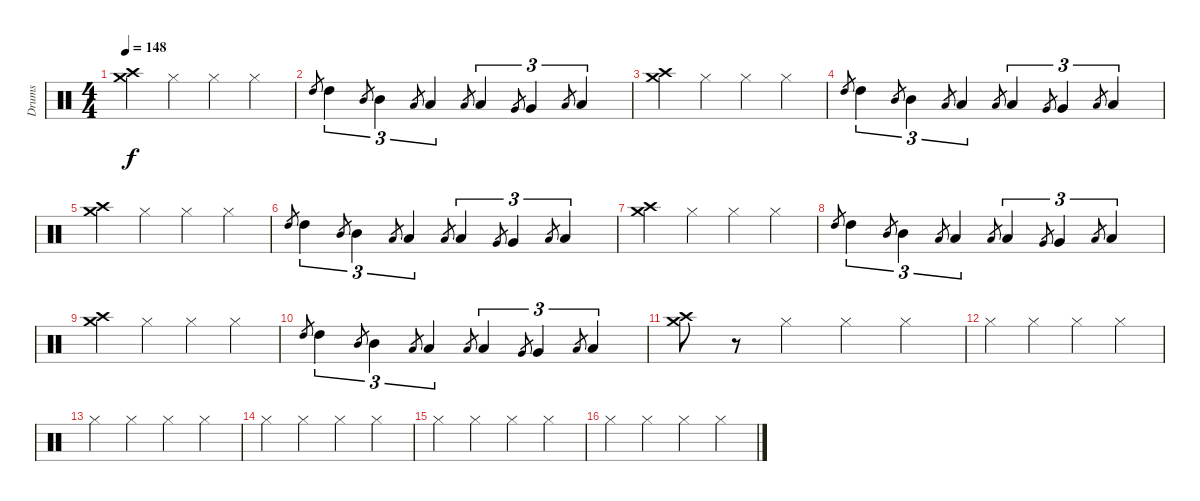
\track ("Drums" "Drums") {instrument percussion}
\staff {score}
\articulation defaults
\ts (4 4)
\tempo 148
\clef neutral
\ks c
("Crash medium (hit)" "Crash high (hit)").4{dy f} "Hi-Hat (closed)".4 "Hi-Hat (closed)".4 "Hi-Hat (closed)".4 |
"High Tom (hit)".8{gr} "High Tom (hit)".4{tu (3 2)} "Mid Tom (hit)".8{gr} "Mid Tom (hit)".4{tu (3 2)} "Low Tom (hit)".8{gr} "Low Tom (hit)".4{tu (3 2)} "Low Tom (hit)".8{gr} "Low Tom (hit)".4{tu (3 2)} "Very Low Tom (hit)".8{gr} "Very Low Tom (hit)".4{tu (3 2)} "Low Floor Tom (hit)".8{gr} "Low Floor Tom (hit)".4{tu (3 2)} |
("Crash medium (hit)" "Crash high (hit)").4 "Hi-Hat (closed)".4 "Hi-Hat (closed)".4 "Hi-Hat (closed)".4 |
"High Tom (hit)".8{gr} "High Tom (hit)".4{tu (3 2)} "Mid Tom (hit)".8{gr} "Mid Tom (hit)".4{tu (3 2)} "Low Tom (hit)".8{gr} "Low Tom (hit)".4{tu (3 2)} "Low Tom (hit)".8{gr} "Low Tom (hit)".4{tu (3 2)} "Very Low Tom (hit)".8{gr} "Very Low Tom (hit)".4{tu (3 2)} "Low Floor Tom (hit)".8{gr} "Low Floor Tom (hit)".4{tu (3 2)} |
("Crash medium (hit)" "Crash high (hit)").4 "Hi-Hat (closed)".4 "Hi-Hat (closed)".4 "Hi-Hat (closed)".4 |
"High Tom (hit)".8{gr} "High Tom (hit)".4{tu (3 2)} "Mid Tom (hit)".8{gr} "Mid Tom (hit)".4{tu (3 2)} "Low Tom (hit)".8{gr} "Low Tom (hit)".4{tu (3 2)} "Low Tom (hit)".8{gr} "Low Tom (hit)".4{tu (3 2)} "Very Low Tom (hit)".8{gr} "Very Low Tom (hit)".4{tu (3 2)} "Low Floor Tom (hit)".8{gr} "Low Floor Tom (hit)".4{tu (3 2)} |
("Crash medium (hit)" "Crash high (hit)").4 "Hi-Hat (closed)".4 "Hi-Hat (closed)".4 "Hi-Hat (closed)".4 |
"High Tom (hit)".8{gr} "High Tom (hit)".4{tu (3 2)} "Mid Tom (hit)".8{gr} "Mid Tom (hit)".4{tu (3 2)} "Low Tom (hit)".8{gr} "Low Tom (hit)".4{tu (3 2)} "Low Tom (hit)".8{gr} "Low Tom (hit)".4{tu (3 2)} "Very Low Tom (hit)".8{gr} "Very Low Tom (hit)".4{tu (3 2)} "Low Floor Tom (hit)".8{gr} "Low Floor Tom (hit)".4{tu (3 2)} |
("Crash medium (hit)" "Crash high (hit)").4 "Hi-Hat (closed)".4 "Hi-Hat (closed)".4 "Hi-Hat (closed)".4 |
"High Tom (hit)".8{gr} "High Tom (hit)".4{tu (3 2)} "Mid Tom (hit)".8{gr} "Mid Tom (hit)".4{tu (3 2)} "Low Tom (hit)".8{gr} "Low Tom (hit)".4{tu (3 2)} "Low Tom (hit)".8{gr} "Low Tom (hit)".4{tu (3 2)} "Very Low Tom (hit)".8{gr} "Very Low Tom (hit)".4{tu (3 2)} "Low Floor Tom (hit)".8{gr} "Low Floor Tom (hit)".4{tu (3 2)} |
("Crash medium (hit)" "Crash high (hit)").8 r.8 "Hi-Hat (closed)".4 "Hi-Hat (closed)".4 "Hi-Hat (closed)".4 |
"Hi-Hat (closed)".4 "Hi-Hat (closed)".4 "Hi-Hat (closed)".4 "Hi-Hat (closed)".4 |
"Hi-Hat (closed)".4 "Hi-Hat (closed)".4 "Hi-Hat (closed)".4 "Hi-Hat (closed)".4 |
"Hi-Hat (closed)".4 "Hi-Hat (closed)".4 "Hi-Hat (closed)".4 "Hi-Hat (closed)".4 |
"Hi-Hat (closed)".4 "Hi-Hat (closed)".4 "Hi-Hat (closed)".4 "Hi-Hat (closed)".4 |
"Hi-Hat (closed)".4 "Hi-Hat (closed)".4 "Hi-Hat (closed)".4 "Hi-Hat (closed)".4
